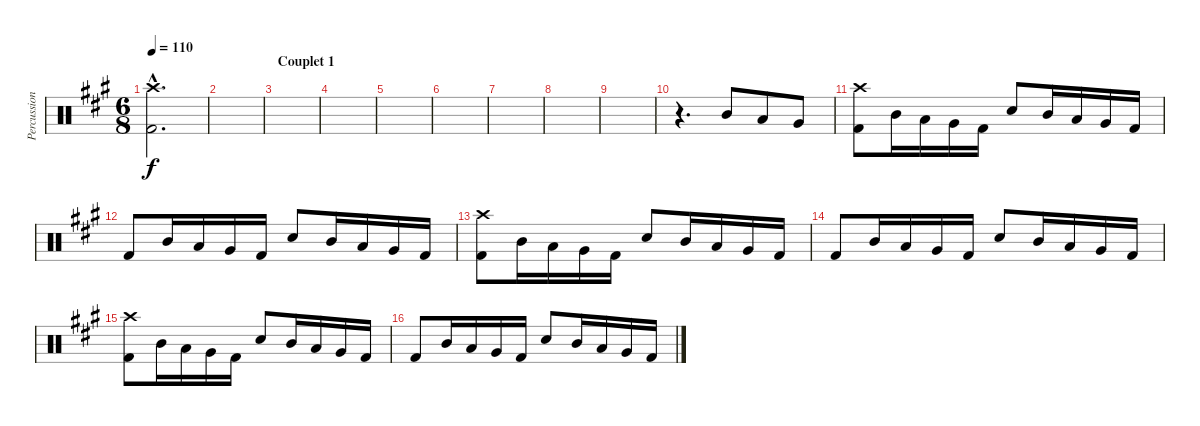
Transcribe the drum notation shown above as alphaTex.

\track ("Percussions" "Percussion") {instrument percussion}
\staff {score}
\articulation defaults
\ts (6 8)
\tempo 110
\clef neutral
\ks a
("Crash high (hit)"{hac} "Kick (hit) 2"{hac}).2{d dy f} |
|
\section ("" "Couplet 1")
|
|
|
|
|
|
|
r.4{d} "Mid Tom (hit)".8 "Low Tom (hit)".8 "Very Low Tom (hit)".8 |
("Crash high (hit)" "Kick (hit) 2").8 "Mid Tom (hit)".16 "Low Tom (hit)".16 "Very Low Tom (hit)".16 "Kick (hit) 2".16 "Electric Snare (hit)".8 "Mid Tom (hit)".16 "Low Tom (hit)".16 "Very Low Tom (hit)".16 "Kick (hit) 2".16 |
"Kick (hit) 2".8 "Mid Tom (hit)".16 "Low Tom (hit)".16 "Very Low Tom (hit)".16 "Kick (hit) 2".16 "Electric Snare (hit)".8 "Mid Tom (hit)".16 "Low Tom (hit)".16 "Very Low Tom (hit)".16 "Kick (hit) 2".16 |
("Crash high (hit)" "Kick (hit) 2").8 "Mid Tom (hit)".16 "Low Tom (hit)".16 "Very Low Tom (hit)".16 "Kick (hit) 2".16 "Electric Snare (hit)".8 "Mid Tom (hit)".16 "Low Tom (hit)".16 "Very Low Tom (hit)".16 "Kick (hit) 2".16 |
"Kick (hit) 2".8 "Mid Tom (hit)".16 "Low Tom (hit)".16 "Very Low Tom (hit)".16 "Kick (hit) 2".16 "Electric Snare (hit)".8 "Mid Tom (hit)".16 "Low Tom (hit)".16 "Very Low Tom (hit)".16 "Kick (hit) 2".16 |
("Crash high (hit)" "Kick (hit) 2").8 "Mid Tom (hit)".16 "Low Tom (hit)".16 "Very Low Tom (hit)".16 "Kick (hit) 2".16 "Electric Snare (hit)".8 "Mid Tom (hit)".16 "Low Tom (hit)".16 "Very Low Tom (hit)".16 "Kick (hit) 2".16 |
"Kick (hit) 2".8 "Mid Tom (hit)".16 "Low Tom (hit)".16 "Very Low Tom (hit)".16 "Kick (hit) 2".16 "Electric Snare (hit)".8 "Mid Tom (hit)".16 "Low Tom (hit)".16 "Very Low Tom (hit)".16 "Kick (hit) 2".16
